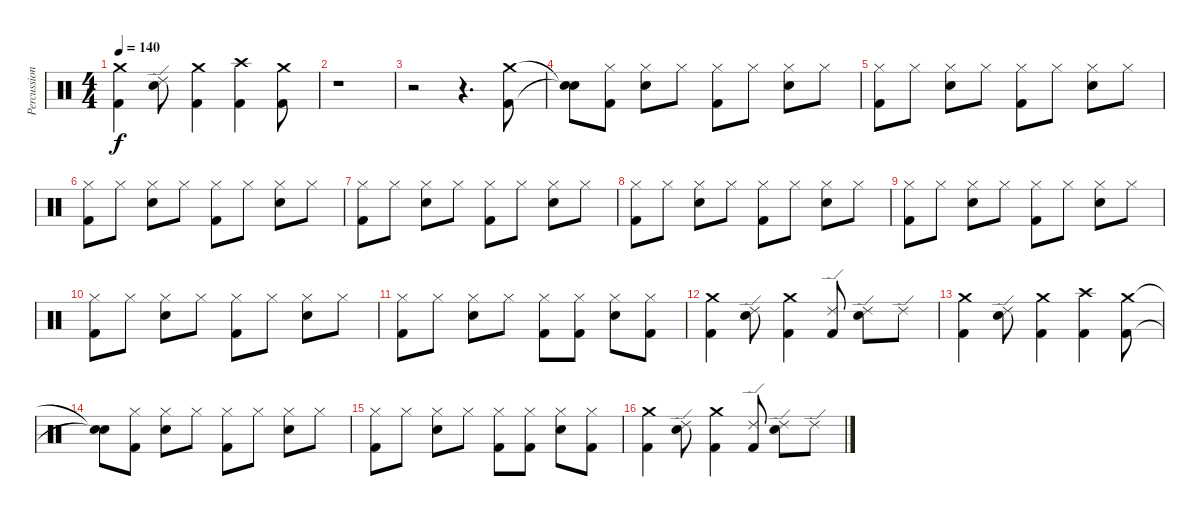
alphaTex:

\track ("Percussion" "Percussion") {instrument percussion}
\staff {score}
\articulation defaults
\ts (4 4)
\tempo 140
\clef neutral
\ks c
("Crash medium (hit)" "Kick (hit) 2").4{dy f} ("Ride (edge) 2" "Electric Snare (hit)").8 ("Crash medium (hit)" "Kick (hit) 2").4 ("Crash high (hit)" "Kick (hit) 2").4 ("Crash medium (hit)" "Kick (hit) 2").8 |
r.1 |
r.2 r.4{d} ("Crash medium (hit)" "Kick (hit) 2").8 |
("Snare (hit)"{t} "Snare (hit)"{t}).8 ("Hi-Hat (closed)" "Kick (hit) 2").8 ("Hi-Hat (closed)" "Electric Snare (hit)").8 "Hi-Hat (closed)".8 ("Hi-Hat (closed)" "Kick (hit) 2").8 "Hi-Hat (closed)".8 ("Hi-Hat (closed)" "Electric Snare (hit)").8 "Hi-Hat (closed)".8 |
("Hi-Hat (closed)" "Kick (hit) 2").8 "Hi-Hat (closed)".8 ("Hi-Hat (closed)" "Electric Snare (hit)").8 "Hi-Hat (closed)".8 ("Hi-Hat (closed)" "Kick (hit) 2").8 "Hi-Hat (closed)".8 ("Hi-Hat (closed)" "Electric Snare (hit)").8 "Hi-Hat (closed)".8 |
("Hi-Hat (closed)" "Kick (hit) 2").8 "Hi-Hat (closed)".8 ("Hi-Hat (closed)" "Electric Snare (hit)").8 "Hi-Hat (closed)".8 ("Hi-Hat (closed)" "Kick (hit) 2").8 "Hi-Hat (closed)".8 ("Hi-Hat (closed)" "Electric Snare (hit)").8 "Hi-Hat (closed)".8 |
("Hi-Hat (closed)" "Kick (hit) 2").8 "Hi-Hat (closed)".8 ("Hi-Hat (closed)" "Electric Snare (hit)").8 "Hi-Hat (closed)".8 ("Hi-Hat (closed)" "Kick (hit) 2").8 "Hi-Hat (closed)".8 ("Hi-Hat (closed)" "Electric Snare (hit)").8 "Hi-Hat (closed)".8 |
("Hi-Hat (closed)" "Kick (hit) 2").8 "Hi-Hat (closed)".8 ("Hi-Hat (closed)" "Electric Snare (hit)").8 "Hi-Hat (closed)".8 ("Hi-Hat (closed)" "Kick (hit) 2").8 "Hi-Hat (closed)".8 ("Hi-Hat (closed)" "Electric Snare (hit)").8 "Hi-Hat (closed)".8 |
("Hi-Hat (closed)" "Kick (hit) 2").8 "Hi-Hat (closed)".8 ("Hi-Hat (closed)" "Electric Snare (hit)").8 "Hi-Hat (closed)".8 ("Hi-Hat (closed)" "Kick (hit) 2").8 "Hi-Hat (closed)".8 ("Hi-Hat (closed)" "Electric Snare (hit)").8 "Hi-Hat (closed)".8 |
("Hi-Hat (closed)" "Kick (hit) 2").8 "Hi-Hat (closed)".8 ("Hi-Hat (closed)" "Electric Snare (hit)").8 "Hi-Hat (closed)".8 ("Hi-Hat (closed)" "Kick (hit) 2").8 "Hi-Hat (closed)".8 ("Hi-Hat (closed)" "Electric Snare (hit)").8 "Hi-Hat (closed)".8 |
("Hi-Hat (closed)" "Kick (hit) 2").8 "Hi-Hat (closed)".8 ("Hi-Hat (closed)" "Electric Snare (hit)").8 "Hi-Hat (closed)".8 ("Hi-Hat (closed)" "Kick (hit) 2").8 ("Hi-Hat (closed)" "Kick (hit) 2").8 ("Hi-Hat (closed)" "Electric Snare (hit)").8 ("Hi-Hat (closed)" "Kick (hit) 2").8 |
("Crash medium (hit)" "Kick (hit) 2").4 ("Ride (edge) 2" "Electric Snare (hit)").8 ("Crash medium (hit)" "Kick (hit) 2").4 ("Ride (edge) 2" "Kick (hit) 2").8 ("Ride (edge) 2" "Electric Snare (hit)").8 "Ride (edge) 2".8 |
("Crash medium (hit)" "Kick (hit) 2").4 ("Ride (edge) 2" "Electric Snare (hit)").8 ("Crash medium (hit)" "Kick (hit) 2").4 ("Crash high (hit)" "Kick (hit) 2").4 ("Crash medium (hit)" "Kick (hit) 2").8 |
("Snare (hit)"{t} "Snare (hit)"{t}).8 ("Hi-Hat (closed)" "Kick (hit) 2").8 ("Hi-Hat (closed)" "Electric Snare (hit)").8 "Hi-Hat (closed)".8 ("Hi-Hat (closed)" "Kick (hit) 2").8 "Hi-Hat (closed)".8 ("Hi-Hat (closed)" "Electric Snare (hit)").8 "Hi-Hat (closed)".8 |
("Hi-Hat (closed)" "Kick (hit) 2").8 "Hi-Hat (closed)".8 ("Hi-Hat (closed)" "Electric Snare (hit)").8 "Hi-Hat (closed)".8 ("Hi-Hat (closed)" "Kick (hit) 2").8 ("Hi-Hat (closed)" "Kick (hit) 2").8 ("Hi-Hat (closed)" "Electric Snare (hit)").8 ("Hi-Hat (closed)" "Kick (hit) 2").8 |
("Crash medium (hit)" "Kick (hit) 2").4 ("Ride (edge) 2" "Electric Snare (hit)").8 ("Crash medium (hit)" "Kick (hit) 2").4 ("Ride (edge) 2" "Kick (hit) 2").8 ("Ride (edge) 2" "Electric Snare (hit)").8 "Ride (edge) 2".8
